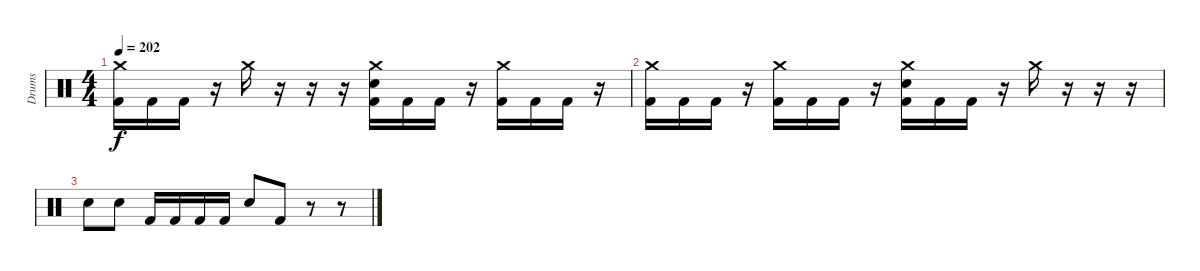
\track ("Drums" "Drums") {instrument percussion}
\staff {score}
\articulation defaults
\ts (4 4)
\tempo 202
\clef neutral
\ks c
("Crash medium (hit)" "Kick (hit) 2").16{dy f} "Kick (hit) 2".16 "Kick (hit) 2".16 r.16 "Crash medium (hit)".16 r.16 r.16 r.16 ("Crash medium (hit)" "Electric Snare (hit)" "Kick (hit) 2").16 "Kick (hit) 2".16 "Kick (hit) 2".16 r.16 ("Crash medium (hit)" "Kick (hit) 2").16 "Kick (hit) 2".16 "Kick (hit) 2".16 r.16 |
("Crash medium (hit)" "Kick (hit) 2").16 "Kick (hit) 2".16 "Kick (hit) 2".16 r.16 ("Crash medium (hit)" "Kick (hit) 2").16 "Kick (hit) 2".16 "Kick (hit) 2".16 r.16 ("Crash medium (hit)" "Electric Snare (hit)" "Kick (hit) 2").16 "Kick (hit) 2".16 "Kick (hit) 2".16 r.16 "Crash medium (hit)".16 r.16 r.16 r.16 |
"Electric Snare (hit)".8 "Electric Snare (hit)".8 "Kick (hit) 2".16 "Kick (hit) 2".16 "Kick (hit) 2".16 "Kick (hit) 2".16 "Electric Snare (hit)".8 "Kick (hit) 2".8 r.8 r.8
